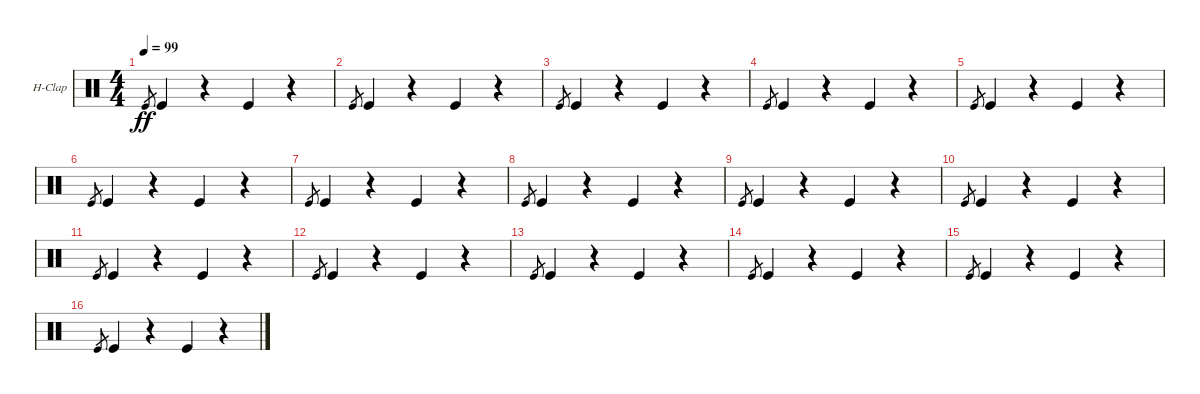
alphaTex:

\bracketExtendMode groupsimilarinstruments
\firstSystemTrackNameOrientation horizontal
\otherSystemsTrackNameOrientation horizontal
\track ("Hand Clap" "H-Clap") {instrument percussion}
\staff {score}
\articulation defaults
\ts (4 4)
\tempo 99
\clef neutral
\ks c "Kick (hit)".8{gr dy ff} "Kick (hit)".4
r.4 "Kick (hit)".4 r.4 |
"Kick (hit)".8{gr} "Kick (hit)".4 r.4 "Kick (hit)".4 r.4 |
"Kick (hit)".8{gr} "Kick (hit)".4 r.4 "Kick (hit)".4 r.4 |
"Kick (hit)".8{gr} "Kick (hit)".4 r.4 "Kick (hit)".4 r.4 |
"Kick (hit)".8{gr} "Kick (hit)".4 r.4 "Kick (hit)".4 r.4 |
"Kick (hit)".8{gr} "Kick (hit)".4 r.4 "Kick (hit)".4 r.4 |
"Kick (hit)".8{gr} "Kick (hit)".4 r.4 "Kick (hit)".4 r.4 |
"Kick (hit)".8{gr} "Kick (hit)".4 r.4 "Kick (hit)".4 r.4 |
"Kick (hit)".8{gr} "Kick (hit)".4 r.4 "Kick (hit)".4 r.4 |
"Kick (hit)".8{gr} "Kick (hit)".4 r.4 "Kick (hit)".4 r.4 |
"Kick (hit)".8{gr} "Kick (hit)".4 r.4 "Kick (hit)".4 r.4 |
"Kick (hit)".8{gr} "Kick (hit)".4 r.4 "Kick (hit)".4 r.4 |
"Kick (hit)".8{gr} "Kick (hit)".4 r.4 "Kick (hit)".4 r.4 |
"Kick (hit)".8{gr} "Kick (hit)".4 r.4 "Kick (hit)".4 r.4 |
"Kick (hit)".8{gr} "Kick (hit)".4 r.4 "Kick (hit)".4 r.4 |
"Kick (hit)".8{gr} "Kick (hit)".4 r.4 "Kick (hit)".4 r.4
